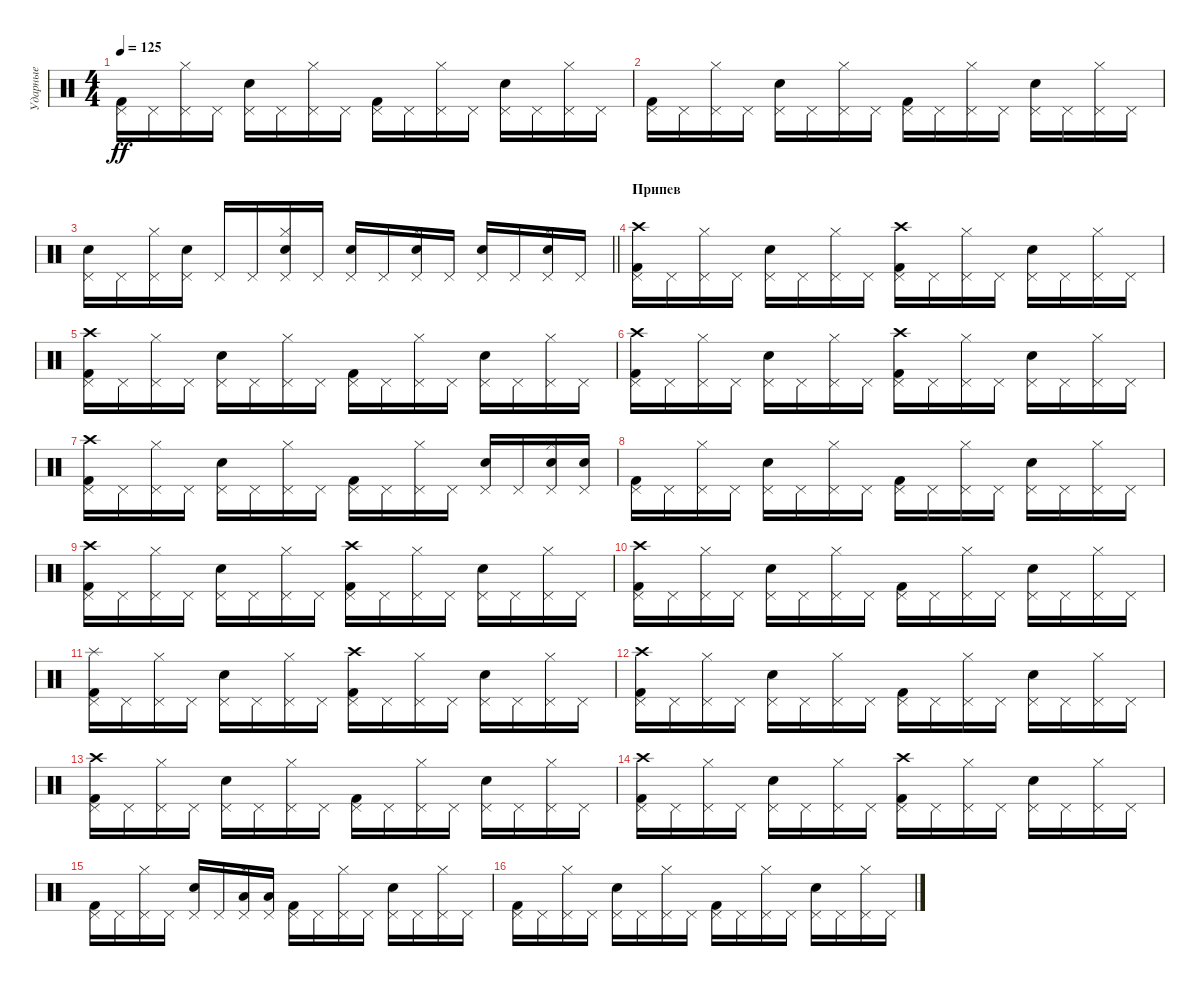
\track ("Ударные" "Ударные") {instrument percussion}
\staff {score}
\articulation defaults
\ts (4 4)
\tempo 125
\clef neutral
\ks c
("Kick (hit) 2" "Pedal Hi-Hat (hit)").16{dy ff} "Pedal Hi-Hat (hit)".16 ("Hi-Hat (closed)" "Pedal Hi-Hat (hit)").16 "Pedal Hi-Hat (hit)".16 ("Snare (hit) 2" "Pedal Hi-Hat (hit)").16 "Pedal Hi-Hat (hit)".16 ("Hi-Hat (closed)" "Pedal Hi-Hat (hit)").16 "Pedal Hi-Hat (hit)".16 ("Kick (hit) 2" "Pedal Hi-Hat (hit)").16 "Pedal Hi-Hat (hit)".16 ("Hi-Hat (closed)" "Pedal Hi-Hat (hit)").16 "Pedal Hi-Hat (hit)".16 ("Snare (hit) 2" "Pedal Hi-Hat (hit)").16 "Pedal Hi-Hat (hit)".16 ("Hi-Hat (closed)" "Pedal Hi-Hat (hit)").16 "Pedal Hi-Hat (hit)".16 |
("Kick (hit) 2" "Pedal Hi-Hat (hit)").16 "Pedal Hi-Hat (hit)".16 ("Hi-Hat (closed)" "Pedal Hi-Hat (hit)").16 "Pedal Hi-Hat (hit)".16 ("Snare (hit) 2" "Pedal Hi-Hat (hit)").16 "Pedal Hi-Hat (hit)".16 ("Hi-Hat (closed)" "Pedal Hi-Hat (hit)").16 "Pedal Hi-Hat (hit)".16 ("Kick (hit) 2" "Pedal Hi-Hat (hit)").16 "Pedal Hi-Hat (hit)".16 ("Hi-Hat (closed)" "Pedal Hi-Hat (hit)").16 "Pedal Hi-Hat (hit)".16 ("Snare (hit) 2" "Pedal Hi-Hat (hit)").16 "Pedal Hi-Hat (hit)".16 ("Hi-Hat (closed)" "Pedal Hi-Hat (hit)").16 "Pedal Hi-Hat (hit)".16 |
\barLineRight lightlight
("Snare (hit) 2" "Pedal Hi-Hat (hit)").16 "Pedal Hi-Hat (hit)".16 ("Hi-Hat (closed)" "Pedal Hi-Hat (hit)").16 ("Snare (hit) 2" "Pedal Hi-Hat (hit)").16 "Pedal Hi-Hat (hit)".16 "Pedal Hi-Hat (hit)".16 ("Hi-Hat (closed)" "Snare (hit) 2" "Pedal Hi-Hat (hit)").16 "Pedal Hi-Hat (hit)".16 ("Snare (hit) 2" "Pedal Hi-Hat (hit)").16 "Pedal Hi-Hat (hit)".16 ("Hi-Hat (closed)" "Snare (hit) 2" "Pedal Hi-Hat (hit)").16 "Pedal Hi-Hat (hit)".16 ("Snare (hit) 2" "Pedal Hi-Hat (hit)").16 "Pedal Hi-Hat (hit)".16 ("Hi-Hat (closed)" "Snare (hit) 2" "Pedal Hi-Hat (hit)").16 "Pedal Hi-Hat (hit)".16 |
\section ("" "Припев")
("Crash high (hit)" "Kick (hit) 2" "Pedal Hi-Hat (hit)").16 "Pedal Hi-Hat (hit)".16 ("Hi-Hat (closed)" "Pedal Hi-Hat (hit)").16 "Pedal Hi-Hat (hit)".16 ("Snare (hit) 2" "Pedal Hi-Hat (hit)").16 "Pedal Hi-Hat (hit)".16 ("Hi-Hat (closed)" "Pedal Hi-Hat (hit)").16 "Pedal Hi-Hat (hit)".16 ("Crash high (hit)" "Kick (hit) 2" "Pedal Hi-Hat (hit)").16 "Pedal Hi-Hat (hit)".16 ("Hi-Hat (closed)" "Pedal Hi-Hat (hit)").16 "Pedal Hi-Hat (hit)".16 ("Snare (hit) 2" "Pedal Hi-Hat (hit)").16 "Pedal Hi-Hat (hit)".16 ("Hi-Hat (closed)" "Pedal Hi-Hat (hit)").16 "Pedal Hi-Hat (hit)".16 |
("Crash high (hit)" "Kick (hit) 2" "Pedal Hi-Hat (hit)").16 "Pedal Hi-Hat (hit)".16 ("Hi-Hat (closed)" "Pedal Hi-Hat (hit)").16 "Pedal Hi-Hat (hit)".16 ("Snare (hit) 2" "Pedal Hi-Hat (hit)").16 "Pedal Hi-Hat (hit)".16 ("Hi-Hat (closed)" "Pedal Hi-Hat (hit)").16 "Pedal Hi-Hat (hit)".16 ("Kick (hit) 2" "Pedal Hi-Hat (hit)").16 "Pedal Hi-Hat (hit)".16 ("Hi-Hat (closed)" "Pedal Hi-Hat (hit)").16 "Pedal Hi-Hat (hit)".16 ("Snare (hit) 2" "Pedal Hi-Hat (hit)").16 "Pedal Hi-Hat (hit)".16 ("Hi-Hat (closed)" "Pedal Hi-Hat (hit)").16 "Pedal Hi-Hat (hit)".16 |
("Crash high (hit)" "Kick (hit) 2" "Pedal Hi-Hat (hit)").16 "Pedal Hi-Hat (hit)".16 ("Hi-Hat (closed)" "Pedal Hi-Hat (hit)").16 "Pedal Hi-Hat (hit)".16 ("Snare (hit) 2" "Pedal Hi-Hat (hit)").16 "Pedal Hi-Hat (hit)".16 ("Hi-Hat (closed)" "Pedal Hi-Hat (hit)").16 "Pedal Hi-Hat (hit)".16 ("Crash high (hit)" "Kick (hit) 2" "Pedal Hi-Hat (hit)").16 "Pedal Hi-Hat (hit)".16 ("Hi-Hat (closed)" "Pedal Hi-Hat (hit)").16 "Pedal Hi-Hat (hit)".16 ("Snare (hit) 2" "Pedal Hi-Hat (hit)").16 "Pedal Hi-Hat (hit)".16 ("Hi-Hat (closed)" "Pedal Hi-Hat (hit)").16 "Pedal Hi-Hat (hit)".16 |
("Crash high (hit)" "Kick (hit) 2" "Pedal Hi-Hat (hit)").16 "Pedal Hi-Hat (hit)".16 ("Hi-Hat (closed)" "Pedal Hi-Hat (hit)").16 "Pedal Hi-Hat (hit)".16 ("Snare (hit) 2" "Pedal Hi-Hat (hit)").16 "Pedal Hi-Hat (hit)".16 ("Hi-Hat (closed)" "Pedal Hi-Hat (hit)").16 "Pedal Hi-Hat (hit)".16 ("Kick (hit) 2" "Pedal Hi-Hat (hit)").16 "Pedal Hi-Hat (hit)".16 ("Hi-Hat (closed)" "Pedal Hi-Hat (hit)").16 "Pedal Hi-Hat (hit)".16 ("Snare (hit) 2" "Pedal Hi-Hat (hit)").16 "Pedal Hi-Hat (hit)".16 ("Hi-Hat (closed)" "Snare (hit) 2" "Pedal Hi-Hat (hit)").16 ("Snare (hit) 2" "Pedal Hi-Hat (hit)").16 |
("Kick (hit) 2" "Pedal Hi-Hat (hit)").16 "Pedal Hi-Hat (hit)".16 ("Hi-Hat (closed)" "Pedal Hi-Hat (hit)").16 "Pedal Hi-Hat (hit)".16 ("Snare (hit) 2" "Pedal Hi-Hat (hit)").16 "Pedal Hi-Hat (hit)".16 ("Hi-Hat (closed)" "Pedal Hi-Hat (hit)").16 "Pedal Hi-Hat (hit)".16 ("Kick (hit) 2" "Pedal Hi-Hat (hit)").16 "Pedal Hi-Hat (hit)".16 ("Hi-Hat (closed)" "Pedal Hi-Hat (hit)").16 "Pedal Hi-Hat (hit)".16 ("Snare (hit) 2" "Pedal Hi-Hat (hit)").16 "Pedal Hi-Hat (hit)".16 ("Hi-Hat (closed)" "Pedal Hi-Hat (hit)").16 "Pedal Hi-Hat (hit)".16 |
("Crash high (hit)" "Kick (hit) 2" "Pedal Hi-Hat (hit)").16 "Pedal Hi-Hat (hit)".16 ("Hi-Hat (closed)" "Pedal Hi-Hat (hit)").16 "Pedal Hi-Hat (hit)".16 ("Snare (hit) 2" "Pedal Hi-Hat (hit)").16 "Pedal Hi-Hat (hit)".16 ("Hi-Hat (closed)" "Pedal Hi-Hat (hit)").16 "Pedal Hi-Hat (hit)".16 ("Crash high (hit)" "Kick (hit) 2" "Pedal Hi-Hat (hit)").16 "Pedal Hi-Hat (hit)".16 ("Hi-Hat (closed)" "Pedal Hi-Hat (hit)").16 "Pedal Hi-Hat (hit)".16 ("Snare (hit) 2" "Pedal Hi-Hat (hit)").16 "Pedal Hi-Hat (hit)".16 ("Hi-Hat (closed)" "Pedal Hi-Hat (hit)").16 "Pedal Hi-Hat (hit)".16 |
("Crash high (hit)" "Kick (hit) 2" "Pedal Hi-Hat (hit)").16 "Pedal Hi-Hat (hit)".16 ("Hi-Hat (closed)" "Pedal Hi-Hat (hit)").16 "Pedal Hi-Hat (hit)".16 ("Snare (hit) 2" "Pedal Hi-Hat (hit)").16 "Pedal Hi-Hat (hit)".16 ("Hi-Hat (closed)" "Pedal Hi-Hat (hit)").16 "Pedal Hi-Hat (hit)".16 ("Kick (hit) 2" "Pedal Hi-Hat (hit)").16 "Pedal Hi-Hat (hit)".16 ("Hi-Hat (closed)" "Pedal Hi-Hat (hit)").16 "Pedal Hi-Hat (hit)".16 ("Snare (hit) 2" "Pedal Hi-Hat (hit)").16 "Pedal Hi-Hat (hit)".16 ("Hi-Hat (closed)" "Pedal Hi-Hat (hit)").16 "Pedal Hi-Hat (hit)".16 |
("Splash (hit)" "Kick (hit) 2" "Pedal Hi-Hat (hit)").16 "Pedal Hi-Hat (hit)".16 ("Hi-Hat (closed)" "Pedal Hi-Hat (hit)").16 "Pedal Hi-Hat (hit)".16 ("Snare (hit) 2" "Pedal Hi-Hat (hit)").16 "Pedal Hi-Hat (hit)".16 ("Hi-Hat (closed)" "Pedal Hi-Hat (hit)").16 "Pedal Hi-Hat (hit)".16 ("Crash high (hit)" "Kick (hit) 2" "Pedal Hi-Hat (hit)").16 "Pedal Hi-Hat (hit)".16 ("Hi-Hat (closed)" "Pedal Hi-Hat (hit)").16 "Pedal Hi-Hat (hit)".16 ("Snare (hit) 2" "Pedal Hi-Hat (hit)").16 "Pedal Hi-Hat (hit)".16 ("Hi-Hat (closed)" "Pedal Hi-Hat (hit)").16 "Pedal Hi-Hat (hit)".16 |
("Crash high (hit)" "Kick (hit) 2" "Pedal Hi-Hat (hit)").16 "Pedal Hi-Hat (hit)".16 ("Hi-Hat (closed)" "Pedal Hi-Hat (hit)").16 "Pedal Hi-Hat (hit)".16 ("Snare (hit) 2" "Pedal Hi-Hat (hit)").16 "Pedal Hi-Hat (hit)".16 ("Hi-Hat (closed)" "Pedal Hi-Hat (hit)").16 "Pedal Hi-Hat (hit)".16 ("Kick (hit) 2" "Pedal Hi-Hat (hit)").16 "Pedal Hi-Hat (hit)".16 ("Hi-Hat (closed)" "Pedal Hi-Hat (hit)").16 "Pedal Hi-Hat (hit)".16 ("Snare (hit) 2" "Pedal Hi-Hat (hit)").16 "Pedal Hi-Hat (hit)".16 ("Hi-Hat (closed)" "Pedal Hi-Hat (hit)").16 "Pedal Hi-Hat (hit)".16 |
("Crash high (hit)" "Kick (hit) 2" "Pedal Hi-Hat (hit)").16 "Pedal Hi-Hat (hit)".16 ("Hi-Hat (closed)" "Pedal Hi-Hat (hit)").16 "Pedal Hi-Hat (hit)".16 ("Snare (hit) 2" "Pedal Hi-Hat (hit)").16 "Pedal Hi-Hat (hit)".16 ("Hi-Hat (closed)" "Pedal Hi-Hat (hit)").16 "Pedal Hi-Hat (hit)".16 ("Kick (hit) 2" "Pedal Hi-Hat (hit)").16 "Pedal Hi-Hat (hit)".16 ("Hi-Hat (closed)" "Pedal Hi-Hat (hit)").16 "Pedal Hi-Hat (hit)".16 ("Snare (hit) 2" "Pedal Hi-Hat (hit)").16 "Pedal Hi-Hat (hit)".16 ("Hi-Hat (closed)" "Pedal Hi-Hat (hit)").16 "Pedal Hi-Hat (hit)".16 |
("Crash high (hit)" "Kick (hit) 2" "Pedal Hi-Hat (hit)").16 "Pedal Hi-Hat (hit)".16 ("Hi-Hat (closed)" "Pedal Hi-Hat (hit)").16 "Pedal Hi-Hat (hit)".16 ("Snare (hit) 2" "Pedal Hi-Hat (hit)").16 "Pedal Hi-Hat (hit)".16 ("Hi-Hat (closed)" "Pedal Hi-Hat (hit)").16 "Pedal Hi-Hat (hit)".16 ("Crash high (hit)" "Kick (hit) 2" "Pedal Hi-Hat (hit)").16 "Pedal Hi-Hat (hit)".16 ("Hi-Hat (closed)" "Pedal Hi-Hat (hit)").16 "Pedal Hi-Hat (hit)".16 ("Snare (hit) 2" "Pedal Hi-Hat (hit)").16 "Pedal Hi-Hat (hit)".16 ("Hi-Hat (closed)" "Pedal Hi-Hat (hit)").16 "Pedal Hi-Hat (hit)".16 |
("Kick (hit) 2" "Pedal Hi-Hat (hit)").16 "Pedal Hi-Hat (hit)".16 ("Hi-Hat (closed)" "Pedal Hi-Hat (hit)").16 "Pedal Hi-Hat (hit)".16 ("Snare (hit) 2" "Pedal Hi-Hat (hit)").16 "Pedal Hi-Hat (hit)".16 ("Hi-Hat (closed)" "Low Tom (hit)" "Pedal Hi-Hat (hit)").16 ("Low Tom (hit)" "Pedal Hi-Hat (hit)").16 ("Kick (hit) 2" "Pedal Hi-Hat (hit)").16 "Pedal Hi-Hat (hit)".16 ("Hi-Hat (closed)" "Pedal Hi-Hat (hit)").16 "Pedal Hi-Hat (hit)".16 ("Snare (hit) 2" "Pedal Hi-Hat (hit)").16 "Pedal Hi-Hat (hit)".16 ("Hi-Hat (closed)" "Pedal Hi-Hat (hit)").16 "Pedal Hi-Hat (hit)".16 |
("Kick (hit) 2" "Pedal Hi-Hat (hit)").16 "Pedal Hi-Hat (hit)".16 ("Hi-Hat (closed)" "Pedal Hi-Hat (hit)").16 "Pedal Hi-Hat (hit)".16 ("Snare (hit) 2" "Pedal Hi-Hat (hit)").16 "Pedal Hi-Hat (hit)".16 ("Hi-Hat (closed)" "Pedal Hi-Hat (hit)").16 "Pedal Hi-Hat (hit)".16 ("Kick (hit) 2" "Pedal Hi-Hat (hit)").16 "Pedal Hi-Hat (hit)".16 ("Hi-Hat (closed)" "Pedal Hi-Hat (hit)").16 "Pedal Hi-Hat (hit)".16 ("Snare (hit) 2" "Pedal Hi-Hat (hit)").16 "Pedal Hi-Hat (hit)".16 ("Hi-Hat (closed)" "Pedal Hi-Hat (hit)").16 "Pedal Hi-Hat (hit)".16
